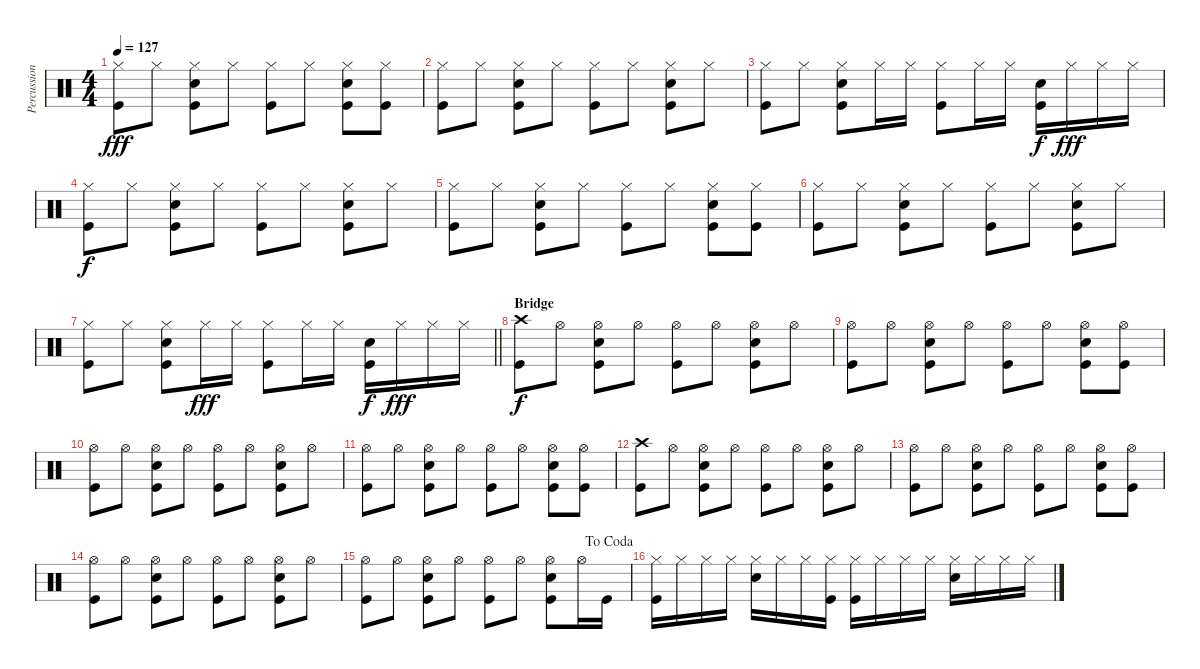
\track ("Percussion" "Percussion") {instrument percussion}
\staff {score}
\articulation defaults
\ts (4 4)
\tempo 127
\clef neutral
\ks c
("Hi-Hat (closed)" "Kick (hit)").8{dy fff} "Hi-Hat (closed)".8 ("Hi-Hat (closed)" "Snare (hit) 2" "Kick (hit)").8 "Hi-Hat (closed)".8 ("Hi-Hat (closed)" "Kick (hit)").8 "Hi-Hat (closed)".8 ("Hi-Hat (closed)" "Snare (hit) 2" "Kick (hit)").8 ("Hi-Hat (closed)" "Kick (hit)").8 |
("Hi-Hat (closed)" "Kick (hit)").8 "Hi-Hat (closed)".8 ("Hi-Hat (closed)" "Snare (hit) 2" "Kick (hit)").8 "Hi-Hat (closed)".8 ("Hi-Hat (closed)" "Kick (hit)").8 "Hi-Hat (closed)".8 ("Hi-Hat (closed)" "Snare (hit) 2" "Kick (hit)").8 "Hi-Hat (closed)".8 |
("Hi-Hat (closed)" "Kick (hit)").8 "Hi-Hat (closed)".8 ("Hi-Hat (closed)" "Snare (hit) 2" "Kick (hit)").8 "Hi-Hat (closed)".16 "Hi-Hat (closed)".16 ("Hi-Hat (closed)" "Kick (hit)").8 "Hi-Hat (closed)".16 "Hi-Hat (closed)".16 ("Snare (hit) 2" "Kick (hit)").16{dy f} "Hi-Hat (closed)".16{dy fff} "Hi-Hat (closed)".16 "Hi-Hat (closed)".16 |
("Hi-Hat (closed)" "Kick (hit)").8{dy f} "Hi-Hat (closed)".8 ("Hi-Hat (closed)" "Snare (hit) 2" "Kick (hit)").8 "Hi-Hat (closed)".8 ("Hi-Hat (closed)" "Kick (hit)").8 "Hi-Hat (closed)".8 ("Hi-Hat (closed)" "Snare (hit) 2" "Kick (hit)").8 "Hi-Hat (closed)".8 |
("Hi-Hat (closed)" "Kick (hit)").8 "Hi-Hat (closed)".8 ("Hi-Hat (closed)" "Snare (hit) 2" "Kick (hit)").8 "Hi-Hat (closed)".8 ("Hi-Hat (closed)" "Kick (hit)").8 "Hi-Hat (closed)".8 ("Hi-Hat (closed)" "Snare (hit) 2" "Kick (hit)").8 ("Hi-Hat (closed)" "Kick (hit)").8 |
("Hi-Hat (closed)" "Kick (hit)").8 "Hi-Hat (closed)".8 ("Hi-Hat (closed)" "Snare (hit) 2" "Kick (hit)").8 "Hi-Hat (closed)".8 ("Hi-Hat (closed)" "Kick (hit)").8 "Hi-Hat (closed)".8 ("Hi-Hat (closed)" "Snare (hit) 2" "Kick (hit)").8 "Hi-Hat (closed)".8 |
\barLineRight lightlight
("Hi-Hat (closed)" "Kick (hit)").8 "Hi-Hat (closed)".8 ("Hi-Hat (closed)" "Snare (hit) 2" "Kick (hit)").8 "Hi-Hat (closed)".16{dy fff} "Hi-Hat (closed)".16 ("Hi-Hat (closed)" "Kick (hit)").8 "Hi-Hat (closed)".16 "Hi-Hat (closed)".16 ("Snare (hit) 2" "Kick (hit)").16{dy f} "Hi-Hat (closed)".16{dy fff} "Hi-Hat (closed)".16 "Hi-Hat (closed)".16 |
\section ("" "Bridge")
("Crash high (hit)" "Kick (hit)").8{dy f} "Hi-Hat (open)".8 ("Hi-Hat (open)" "Snare (hit) 2" "Kick (hit)").8 "Hi-Hat (open)".8 ("Hi-Hat (open)" "Kick (hit)").8 "Hi-Hat (open)".8 ("Hi-Hat (open)" "Snare (hit) 2" "Kick (hit)").8 "Hi-Hat (open)".8 |
("Hi-Hat (open)" "Kick (hit)").8 "Hi-Hat (open)".8 ("Hi-Hat (open)" "Snare (hit) 2" "Kick (hit)").8 "Hi-Hat (open)".8 ("Hi-Hat (open)" "Kick (hit)").8 "Hi-Hat (open)".8 ("Hi-Hat (open)" "Snare (hit) 2" "Kick (hit)").8 ("Hi-Hat (open)" "Kick (hit)").8 |
("Hi-Hat (open)" "Kick (hit)").8 "Hi-Hat (open)".8 ("Hi-Hat (open)" "Snare (hit) 2" "Kick (hit)").8 "Hi-Hat (open)".8 ("Hi-Hat (open)" "Kick (hit)").8 "Hi-Hat (open)".8 ("Hi-Hat (open)" "Snare (hit) 2" "Kick (hit)").8 "Hi-Hat (open)".8 |
("Hi-Hat (open)" "Kick (hit)").8 "Hi-Hat (open)".8 ("Hi-Hat (open)" "Snare (hit) 2" "Kick (hit)").8 "Hi-Hat (open)".8 ("Hi-Hat (open)" "Kick (hit)").8 "Hi-Hat (open)".8 ("Hi-Hat (open)" "Snare (hit) 2" "Kick (hit)").8 ("Hi-Hat (open)" "Kick (hit)").8 |
("Crash high (hit)" "Kick (hit)").8 "Hi-Hat (open)".8 ("Hi-Hat (open)" "Snare (hit) 2" "Kick (hit)").8 "Hi-Hat (open)".8 ("Hi-Hat (open)" "Kick (hit)").8 "Hi-Hat (open)".8 ("Hi-Hat (open)" "Snare (hit) 2" "Kick (hit)").8 "Hi-Hat (open)".8 |
("Hi-Hat (open)" "Kick (hit)").8 "Hi-Hat (open)".8 ("Hi-Hat (open)" "Snare (hit) 2" "Kick (hit)").8 "Hi-Hat (open)".8 ("Hi-Hat (open)" "Kick (hit)").8 "Hi-Hat (open)".8 ("Hi-Hat (open)" "Snare (hit) 2" "Kick (hit)").8 ("Hi-Hat (open)" "Kick (hit)").8 |
("Hi-Hat (open)" "Kick (hit)").8 "Hi-Hat (open)".8 ("Hi-Hat (open)" "Snare (hit) 2" "Kick (hit)").8 "Hi-Hat (open)".8 ("Hi-Hat (open)" "Kick (hit)").8 "Hi-Hat (open)".8 ("Hi-Hat (open)" "Snare (hit) 2" "Kick (hit)").8 "Hi-Hat (open)".8 |
\jump dacoda
("Hi-Hat (open)" "Kick (hit)").8 "Hi-Hat (open)".8 ("Hi-Hat (open)" "Snare (hit) 2" "Kick (hit)").8 "Hi-Hat (open)".8 ("Hi-Hat (open)" "Kick (hit)").8 "Hi-Hat (open)".8 ("Hi-Hat (open)" "Snare (hit) 2" "Kick (hit)").8 "Hi-Hat (open)".16 "Kick (hit)".16 |
("Hi-Hat (closed)" "Kick (hit)").16 "Hi-Hat (closed)".16 "Hi-Hat (closed)".16 "Hi-Hat (closed)".16 ("Hi-Hat (closed)" "Snare (hit) 2").16 "Hi-Hat (closed)".16 "Hi-Hat (closed)".16 ("Hi-Hat (closed)" "Kick (hit)").16 ("Hi-Hat (closed)" "Kick (hit)").16 "Hi-Hat (closed)".16 "Hi-Hat (closed)".16 "Hi-Hat (closed)".16 ("Hi-Hat (closed)" "Snare (hit) 2").16 "Hi-Hat (closed)".16 "Hi-Hat (closed)".16 "Hi-Hat (closed)".16
